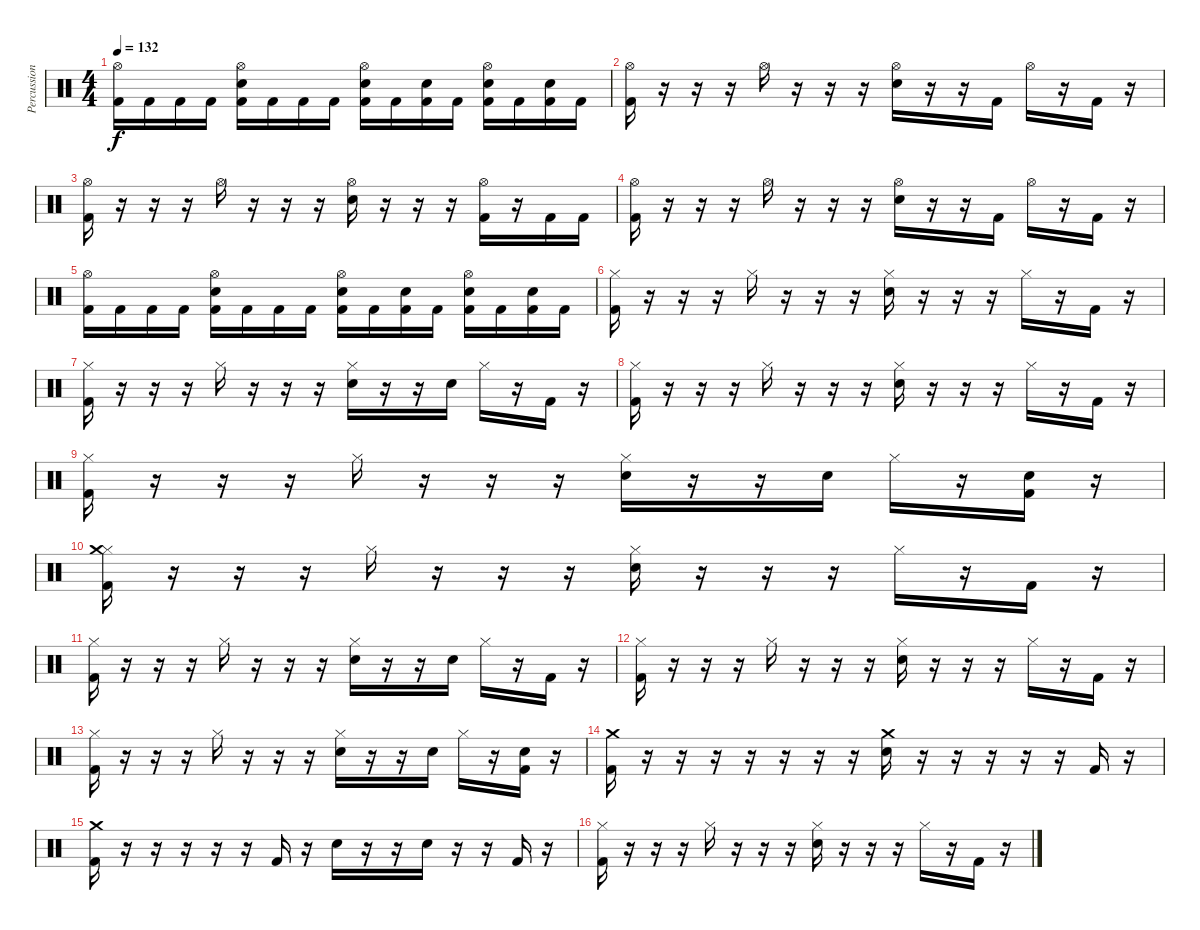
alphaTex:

\track ("Percussion" "Percussion") {instrument percussion}
\staff {score}
\articulation defaults
\ts (4 4)
\tempo 132
\clef neutral
\ks c
("Hi-Hat (open)" "Kick (hit) 2").16{dy f} "Kick (hit) 2".16 "Kick (hit) 2".16 "Kick (hit) 2".16 ("Hi-Hat (open)" "Snare (hit) 2" "Kick (hit) 2").16 "Kick (hit) 2".16 "Kick (hit) 2".16 "Kick (hit) 2".16 ("Hi-Hat (open)" "Snare (hit) 2" "Kick (hit) 2").16 "Kick (hit) 2".16 ("Snare (hit) 2" "Kick (hit) 2").16 "Kick (hit) 2".16 ("Hi-Hat (open)" "Snare (hit) 2" "Kick (hit) 2").16 "Kick (hit) 2".16 ("Snare (hit) 2" "Kick (hit) 2").16 "Kick (hit) 2".16 |
("Hi-Hat (open)" "Kick (hit) 2").16 r.16 r.16 r.16 "Hi-Hat (open)".16 r.16 r.16 r.16 ("Hi-Hat (open)" "Snare (hit) 2").16 r.16 r.16 "Kick (hit) 2".16 "Hi-Hat (open)".16 r.16 "Kick (hit) 2".16 r.16 |
("Hi-Hat (open)" "Kick (hit) 2").16 r.16 r.16 r.16 "Hi-Hat (open)".16 r.16 r.16 r.16 ("Hi-Hat (open)" "Snare (hit) 2").16 r.16 r.16 r.16 ("Hi-Hat (open)" "Kick (hit) 2").16 r.16 "Kick (hit) 2".16 "Kick (hit) 2".16 |
("Hi-Hat (open)" "Kick (hit) 2").16 r.16 r.16 r.16 "Hi-Hat (open)".16 r.16 r.16 r.16 ("Hi-Hat (open)" "Snare (hit) 2").16 r.16 r.16 "Kick (hit) 2".16 "Hi-Hat (open)".16 r.16 "Kick (hit) 2".16 r.16 |
("Hi-Hat (open)" "Kick (hit) 2").16 "Kick (hit) 2".16 "Kick (hit) 2".16 "Kick (hit) 2".16 ("Hi-Hat (open)" "Snare (hit) 2" "Kick (hit) 2").16 "Kick (hit) 2".16 "Kick (hit) 2".16 "Kick (hit) 2".16 ("Hi-Hat (open)" "Snare (hit) 2" "Kick (hit) 2").16 "Kick (hit) 2".16 ("Snare (hit) 2" "Kick (hit) 2").16 "Kick (hit) 2".16 ("Hi-Hat (open)" "Snare (hit) 2" "Kick (hit) 2").16 "Kick (hit) 2".16 ("Snare (hit) 2" "Kick (hit) 2").16 "Kick (hit) 2".16 |
("Hi-Hat (closed)" "Kick (hit) 2").16 r.16 r.16 r.16 "Hi-Hat (closed)".16 r.16 r.16 r.16 ("Hi-Hat (closed)" "Snare (hit) 2").16 r.16 r.16 r.16 "Hi-Hat (closed)".16 r.16 "Kick (hit) 2".16 r.16 |
("Hi-Hat (closed)" "Kick (hit) 2").16 r.16 r.16 r.16 "Hi-Hat (closed)".16 r.16 r.16 r.16 ("Hi-Hat (closed)" "Snare (hit) 2").16 r.16 r.16 "Snare (hit) 2".16 "Hi-Hat (closed)".16 r.16 "Kick (hit) 2".16 r.16 |
("Hi-Hat (closed)" "Kick (hit) 2").16 r.16 r.16 r.16 "Hi-Hat (closed)".16 r.16 r.16 r.16 ("Hi-Hat (closed)" "Snare (hit) 2").16 r.16 r.16 r.16 "Hi-Hat (closed)".16 r.16 "Kick (hit) 2".16 r.16 |
("Hi-Hat (closed)" "Kick (hit) 2").16 r.16 r.16 r.16 "Hi-Hat (closed)".16 r.16 r.16 r.16 ("Hi-Hat (closed)" "Snare (hit) 2").16 r.16 r.16 "Snare (hit) 2".16 "Hi-Hat (closed)".16 r.16 ("Snare (hit) 2" "Kick (hit) 2").16 r.16 |
("Hi-Hat (closed)" "Kick (hit) 2" "Crash medium (hit)").16 r.16 r.16 r.16 "Hi-Hat (closed)".16 r.16 r.16 r.16 ("Hi-Hat (closed)" "Snare (hit) 2").16 r.16 r.16 r.16 "Hi-Hat (closed)".16 r.16 "Kick (hit) 2".16 r.16 |
("Hi-Hat (closed)" "Kick (hit) 2").16 r.16 r.16 r.16 "Hi-Hat (closed)".16 r.16 r.16 r.16 ("Hi-Hat (closed)" "Snare (hit) 2").16 r.16 r.16 "Snare (hit) 2".16 "Hi-Hat (closed)".16 r.16 "Kick (hit) 2".16 r.16 |
("Hi-Hat (closed)" "Kick (hit) 2").16 r.16 r.16 r.16 "Hi-Hat (closed)".16 r.16 r.16 r.16 ("Hi-Hat (closed)" "Snare (hit) 2").16 r.16 r.16 r.16 "Hi-Hat (closed)".16 r.16 "Kick (hit) 2".16 r.16 |
("Hi-Hat (closed)" "Kick (hit) 2").16 r.16 r.16 r.16 "Hi-Hat (closed)".16 r.16 r.16 r.16 ("Hi-Hat (closed)" "Snare (hit) 2").16 r.16 r.16 "Snare (hit) 2".16 "Hi-Hat (closed)".16 r.16 ("Snare (hit) 2" "Kick (hit) 2").16 r.16 |
("Crash medium (hit)" "Kick (hit) 2").16 r.16 r.16 r.16 r.16 r.16 r.16 r.16 ("Crash medium (hit)" "Snare (hit) 2").16 r.16 r.16 r.16 r.16 r.16 "Kick (hit) 2".16 r.16 |
("Crash medium (hit)" "Kick (hit) 2").16 r.16 r.16 r.16 r.16 r.16 "Kick (hit) 2".16 r.16 "Snare (hit) 2".16 r.16 r.16 "Snare (hit) 2".16 r.16 r.16 "Kick (hit) 2".16 r.16 |
("Hi-Hat (closed)" "Kick (hit) 2").16 r.16 r.16 r.16 "Hi-Hat (closed)".16 r.16 r.16 r.16 ("Hi-Hat (closed)" "Snare (hit) 2").16 r.16 r.16 r.16 "Hi-Hat (closed)".16 r.16 "Kick (hit) 2".16 r.16
